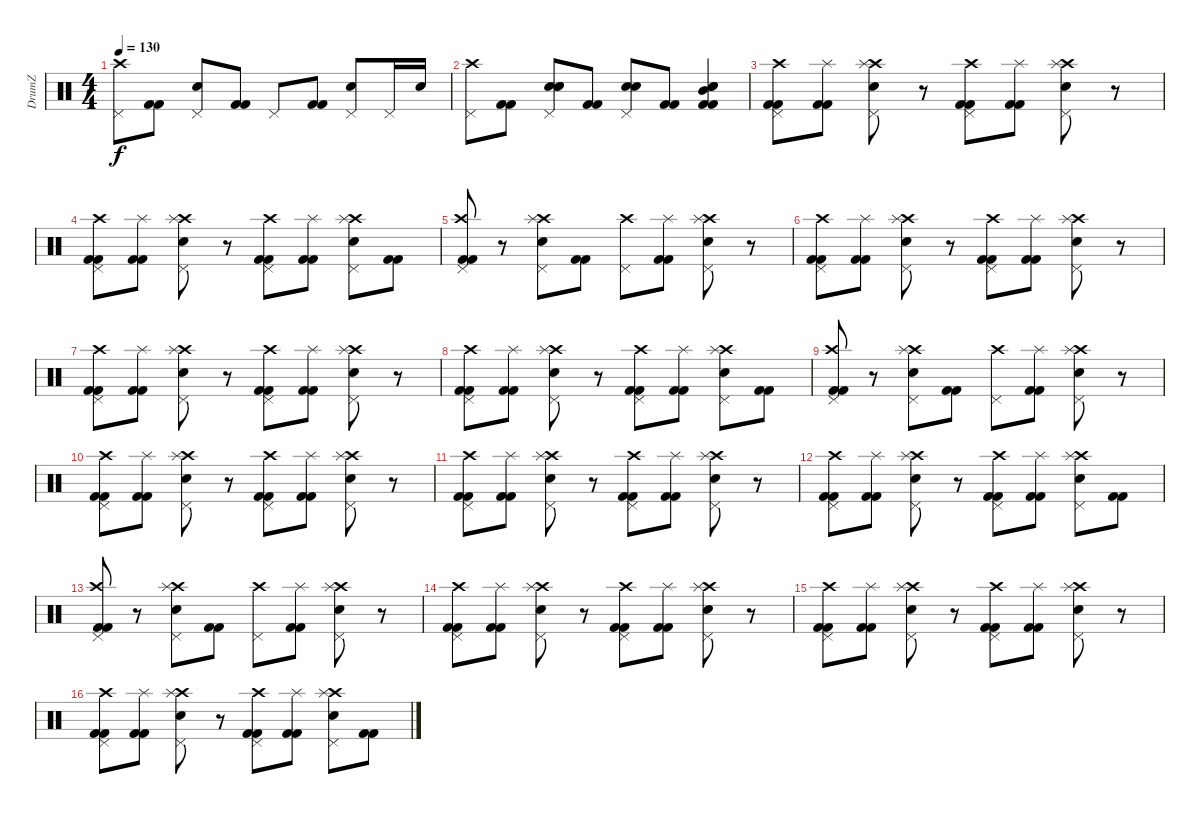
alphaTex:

\track ("DrumZ" "DrumZ") {instrument percussion}
\staff {score}
\articulation defaults
\ts (4 4)
\tempo 130
\clef neutral
\ks c
("Pedal Hi-Hat (hit)" "Crash high (hit)").8{dy f} ("Kick (hit) 2" "Kick (hit) 2").8 ("Pedal Hi-Hat (hit)" "Snare (hit) 2").8 ("Kick (hit) 2" "Kick (hit) 2").8 "Pedal Hi-Hat (hit)".8 ("Kick (hit) 2" "Kick (hit) 2").8 ("Pedal Hi-Hat (hit)" "Snare (hit) 2").8 "Pedal Hi-Hat (hit)".16 "Snare (hit) 2".16 |
("Pedal Hi-Hat (hit)" "Crash high (hit)").8 ("Kick (hit) 2" "Kick (hit) 2").8 ("Pedal Hi-Hat (hit)" "Electric Snare (hit)" "Snare (hit) 2" "Snare (hit) 2").8 ("Kick (hit) 2" "Kick (hit) 2").8 ("Pedal Hi-Hat (hit)" "Electric Snare (hit)" "Snare (hit) 2").8 ("Kick (hit) 2" "Kick (hit) 2").8 ("Mid Tom (hit)" "Snare (hit) 2" "Kick (hit) 2" "Kick (hit) 2" "Electric Snare (hit)").4 |
("Pedal Hi-Hat (hit)" "Crash high (hit)" "Kick (hit) 2" "Kick (hit) 2").8 ("Splash (hit)" "Kick (hit) 2" "Kick (hit) 2").8 ("Pedal Hi-Hat (hit)" "Crash high (hit)" "Splash (hit)" "Snare (hit) 2").8 r.8 ("Pedal Hi-Hat (hit)" "Crash high (hit)" "Kick (hit) 2" "Kick (hit) 2").8 ("Splash (hit)" "Kick (hit) 2" "Kick (hit) 2").8 ("Pedal Hi-Hat (hit)" "Crash high (hit)" "Splash (hit)" "Snare (hit) 2").8 r.8 |
("Pedal Hi-Hat (hit)" "Crash high (hit)" "Kick (hit) 2" "Kick (hit) 2").8 ("Splash (hit)" "Kick (hit) 2" "Kick (hit) 2").8 ("Pedal Hi-Hat (hit)" "Crash high (hit)" "Splash (hit)" "Snare (hit) 2").8 r.8 ("Pedal Hi-Hat (hit)" "Crash high (hit)" "Kick (hit) 2" "Kick (hit) 2").8 ("Splash (hit)" "Kick (hit) 2" "Kick (hit) 2").8 ("Pedal Hi-Hat (hit)" "Crash high (hit)" "Splash (hit)" "Snare (hit) 2").8 ("Kick (hit) 2" "Kick (hit) 2").8 |
("Pedal Hi-Hat (hit)" "Crash high (hit)" "Kick (hit) 2" "Kick (hit) 2").8 r.8 ("Pedal Hi-Hat (hit)" "Crash high (hit)" "Splash (hit)" "Snare (hit) 2").8 ("Kick (hit) 2" "Kick (hit) 2").8 ("Pedal Hi-Hat (hit)" "Crash high (hit)").8 ("Splash (hit)" "Kick (hit) 2" "Kick (hit) 2").8 ("Pedal Hi-Hat (hit)" "Crash high (hit)" "Splash (hit)" "Snare (hit) 2").8 r.8 |
("Pedal Hi-Hat (hit)" "Crash high (hit)" "Kick (hit) 2" "Kick (hit) 2").8 ("Splash (hit)" "Kick (hit) 2" "Kick (hit) 2").8 ("Pedal Hi-Hat (hit)" "Crash high (hit)" "Splash (hit)" "Snare (hit) 2").8 r.8 ("Pedal Hi-Hat (hit)" "Crash high (hit)" "Kick (hit) 2" "Kick (hit) 2").8 ("Splash (hit)" "Kick (hit) 2" "Kick (hit) 2").8 ("Pedal Hi-Hat (hit)" "Crash high (hit)" "Splash (hit)" "Snare (hit) 2").8 r.8 |
("Pedal Hi-Hat (hit)" "Crash high (hit)" "Kick (hit) 2" "Kick (hit) 2").8 ("Splash (hit)" "Kick (hit) 2" "Kick (hit) 2").8 ("Pedal Hi-Hat (hit)" "Crash high (hit)" "Splash (hit)" "Snare (hit) 2").8 r.8 ("Pedal Hi-Hat (hit)" "Crash high (hit)" "Kick (hit) 2" "Kick (hit) 2").8 ("Splash (hit)" "Kick (hit) 2" "Kick (hit) 2").8 ("Pedal Hi-Hat (hit)" "Crash high (hit)" "Splash (hit)" "Snare (hit) 2").8 r.8 |
("Pedal Hi-Hat (hit)" "Crash high (hit)" "Kick (hit) 2" "Kick (hit) 2").8 ("Splash (hit)" "Kick (hit) 2" "Kick (hit) 2").8 ("Pedal Hi-Hat (hit)" "Crash high (hit)" "Splash (hit)" "Snare (hit) 2").8 r.8 ("Pedal Hi-Hat (hit)" "Crash high (hit)" "Kick (hit) 2" "Kick (hit) 2").8 ("Splash (hit)" "Kick (hit) 2" "Kick (hit) 2").8 ("Pedal Hi-Hat (hit)" "Crash high (hit)" "Splash (hit)" "Snare (hit) 2").8 ("Kick (hit) 2" "Kick (hit) 2").8 |
("Pedal Hi-Hat (hit)" "Crash high (hit)" "Kick (hit) 2" "Kick (hit) 2").8 r.8 ("Pedal Hi-Hat (hit)" "Crash high (hit)" "Splash (hit)" "Snare (hit) 2").8 ("Kick (hit) 2" "Kick (hit) 2").8 ("Pedal Hi-Hat (hit)" "Crash high (hit)").8 ("Splash (hit)" "Kick (hit) 2" "Kick (hit) 2").8 ("Pedal Hi-Hat (hit)" "Crash high (hit)" "Splash (hit)" "Snare (hit) 2").8 r.8 |
("Pedal Hi-Hat (hit)" "Crash high (hit)" "Kick (hit) 2" "Kick (hit) 2").8 ("Splash (hit)" "Kick (hit) 2" "Kick (hit) 2").8 ("Pedal Hi-Hat (hit)" "Crash high (hit)" "Splash (hit)" "Snare (hit) 2").8 r.8 ("Pedal Hi-Hat (hit)" "Crash high (hit)" "Kick (hit) 2" "Kick (hit) 2").8 ("Splash (hit)" "Kick (hit) 2" "Kick (hit) 2").8 ("Pedal Hi-Hat (hit)" "Crash high (hit)" "Splash (hit)" "Snare (hit) 2").8 r.8 |
("Pedal Hi-Hat (hit)" "Crash high (hit)" "Kick (hit) 2" "Kick (hit) 2").8 ("Splash (hit)" "Kick (hit) 2" "Kick (hit) 2").8 ("Pedal Hi-Hat (hit)" "Crash high (hit)" "Splash (hit)" "Snare (hit) 2").8 r.8 ("Pedal Hi-Hat (hit)" "Crash high (hit)" "Kick (hit) 2" "Kick (hit) 2").8 ("Splash (hit)" "Kick (hit) 2" "Kick (hit) 2").8 ("Pedal Hi-Hat (hit)" "Crash high (hit)" "Splash (hit)" "Snare (hit) 2").8 r.8 |
("Pedal Hi-Hat (hit)" "Crash high (hit)" "Kick (hit) 2" "Kick (hit) 2").8 ("Splash (hit)" "Kick (hit) 2" "Kick (hit) 2").8 ("Pedal Hi-Hat (hit)" "Crash high (hit)" "Splash (hit)" "Snare (hit) 2").8 r.8 ("Pedal Hi-Hat (hit)" "Crash high (hit)" "Kick (hit) 2" "Kick (hit) 2").8 ("Splash (hit)" "Kick (hit) 2" "Kick (hit) 2").8 ("Pedal Hi-Hat (hit)" "Crash high (hit)" "Splash (hit)" "Snare (hit) 2").8 ("Kick (hit) 2" "Kick (hit) 2").8 |
("Pedal Hi-Hat (hit)" "Crash high (hit)" "Kick (hit) 2" "Kick (hit) 2").8 r.8 ("Pedal Hi-Hat (hit)" "Crash high (hit)" "Splash (hit)" "Snare (hit) 2").8 ("Kick (hit) 2" "Kick (hit) 2").8 ("Pedal Hi-Hat (hit)" "Crash high (hit)").8 ("Splash (hit)" "Kick (hit) 2" "Kick (hit) 2").8 ("Pedal Hi-Hat (hit)" "Crash high (hit)" "Splash (hit)" "Snare (hit) 2").8 r.8 |
("Pedal Hi-Hat (hit)" "Crash high (hit)" "Kick (hit) 2" "Kick (hit) 2").8 ("Splash (hit)" "Kick (hit) 2" "Kick (hit) 2").8 ("Pedal Hi-Hat (hit)" "Crash high (hit)" "Splash (hit)" "Snare (hit) 2").8 r.8 ("Pedal Hi-Hat (hit)" "Crash high (hit)" "Kick (hit) 2" "Kick (hit) 2").8 ("Splash (hit)" "Kick (hit) 2" "Kick (hit) 2").8 ("Pedal Hi-Hat (hit)" "Crash high (hit)" "Splash (hit)" "Snare (hit) 2").8 r.8 |
("Pedal Hi-Hat (hit)" "Crash high (hit)" "Kick (hit) 2" "Kick (hit) 2").8 ("Splash (hit)" "Kick (hit) 2" "Kick (hit) 2").8 ("Pedal Hi-Hat (hit)" "Crash high (hit)" "Splash (hit)" "Snare (hit) 2").8 r.8 ("Pedal Hi-Hat (hit)" "Crash high (hit)" "Kick (hit) 2" "Kick (hit) 2").8 ("Splash (hit)" "Kick (hit) 2" "Kick (hit) 2").8 ("Pedal Hi-Hat (hit)" "Crash high (hit)" "Splash (hit)" "Snare (hit) 2").8 r.8 |
("Pedal Hi-Hat (hit)" "Crash high (hit)" "Kick (hit) 2" "Kick (hit) 2").8 ("Splash (hit)" "Kick (hit) 2" "Kick (hit) 2").8 ("Pedal Hi-Hat (hit)" "Crash high (hit)" "Splash (hit)" "Snare (hit) 2").8 r.8 ("Pedal Hi-Hat (hit)" "Crash high (hit)" "Kick (hit) 2" "Kick (hit) 2").8 ("Splash (hit)" "Kick (hit) 2" "Kick (hit) 2").8 ("Pedal Hi-Hat (hit)" "Crash high (hit)" "Splash (hit)" "Snare (hit) 2").8 ("Kick (hit) 2" "Kick (hit) 2").8
